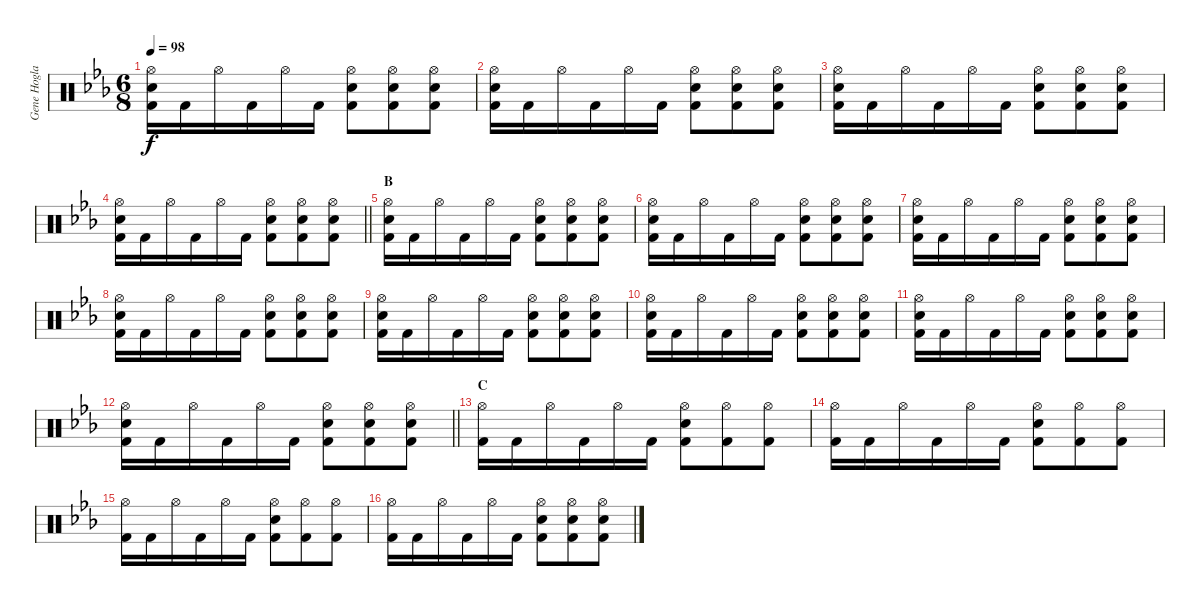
\track ("Gene Hogland" "Gene Hogla") {instrument percussion}
\staff {score}
\articulation defaults
\ts (6 8)
\tempo 98
\clef neutral
\ks eb
("Hi-Hat (open)" "Electric Snare (hit)" "Kick (hit) 2").16{dy f} "Kick (hit) 2".16 "Hi-Hat (open)".16 "Kick (hit) 2".16 "Hi-Hat (open)".16 "Kick (hit) 2".16 ("Hi-Hat (open)" "Electric Snare (hit)" "Kick (hit) 2").8 ("Hi-Hat (open)" "Electric Snare (hit)" "Kick (hit) 2").8 ("Hi-Hat (open)" "Electric Snare (hit)" "Kick (hit) 2").8 |
("Hi-Hat (open)" "Electric Snare (hit)" "Kick (hit) 2").16 "Kick (hit) 2".16 "Hi-Hat (open)".16 "Kick (hit) 2".16 "Hi-Hat (open)".16 "Kick (hit) 2".16 ("Hi-Hat (open)" "Electric Snare (hit)" "Kick (hit) 2").8 ("Hi-Hat (open)" "Electric Snare (hit)" "Kick (hit) 2").8 ("Hi-Hat (open)" "Electric Snare (hit)" "Kick (hit) 2").8 |
("Hi-Hat (open)" "Electric Snare (hit)" "Kick (hit) 2").16 "Kick (hit) 2".16 "Hi-Hat (open)".16 "Kick (hit) 2".16 "Hi-Hat (open)".16 "Kick (hit) 2".16 ("Hi-Hat (open)" "Electric Snare (hit)" "Kick (hit) 2").8 ("Hi-Hat (open)" "Electric Snare (hit)" "Kick (hit) 2").8 ("Hi-Hat (open)" "Electric Snare (hit)" "Kick (hit) 2").8 |
\barLineRight lightlight
("Hi-Hat (open)" "Electric Snare (hit)" "Kick (hit) 2").16 "Kick (hit) 2".16 "Hi-Hat (open)".16 "Kick (hit) 2".16 "Hi-Hat (open)".16 "Kick (hit) 2".16 ("Hi-Hat (open)" "Electric Snare (hit)" "Kick (hit) 2").8 ("Hi-Hat (open)" "Electric Snare (hit)" "Kick (hit) 2").8 ("Hi-Hat (open)" "Electric Snare (hit)" "Kick (hit) 2").8 |
\section ("" "B")
("Hi-Hat (open)" "Electric Snare (hit)" "Kick (hit) 2").16 "Kick (hit) 2".16 "Hi-Hat (open)".16 "Kick (hit) 2".16 "Hi-Hat (open)".16 "Kick (hit) 2".16 ("Hi-Hat (open)" "Electric Snare (hit)" "Kick (hit) 2").8 ("Hi-Hat (open)" "Electric Snare (hit)" "Kick (hit) 2").8 ("Hi-Hat (open)" "Electric Snare (hit)" "Kick (hit) 2").8 |
("Hi-Hat (open)" "Electric Snare (hit)" "Kick (hit) 2").16 "Kick (hit) 2".16 "Hi-Hat (open)".16 "Kick (hit) 2".16 "Hi-Hat (open)".16 "Kick (hit) 2".16 ("Hi-Hat (open)" "Electric Snare (hit)" "Kick (hit) 2").8 ("Hi-Hat (open)" "Electric Snare (hit)" "Kick (hit) 2").8 ("Hi-Hat (open)" "Electric Snare (hit)" "Kick (hit) 2").8 |
("Hi-Hat (open)" "Electric Snare (hit)" "Kick (hit) 2").16 "Kick (hit) 2".16 "Hi-Hat (open)".16 "Kick (hit) 2".16 "Hi-Hat (open)".16 "Kick (hit) 2".16 ("Hi-Hat (open)" "Electric Snare (hit)" "Kick (hit) 2").8 ("Hi-Hat (open)" "Electric Snare (hit)" "Kick (hit) 2").8 ("Hi-Hat (open)" "Electric Snare (hit)" "Kick (hit) 2").8 |
("Hi-Hat (open)" "Electric Snare (hit)" "Kick (hit) 2").16 "Kick (hit) 2".16 "Hi-Hat (open)".16 "Kick (hit) 2".16 "Hi-Hat (open)".16 "Kick (hit) 2".16 ("Hi-Hat (open)" "Electric Snare (hit)" "Kick (hit) 2").8 ("Hi-Hat (open)" "Electric Snare (hit)" "Kick (hit) 2").8 ("Hi-Hat (open)" "Electric Snare (hit)" "Kick (hit) 2").8 |
("Hi-Hat (open)" "Electric Snare (hit)" "Kick (hit) 2").16 "Kick (hit) 2".16 "Hi-Hat (open)".16 "Kick (hit) 2".16 "Hi-Hat (open)".16 "Kick (hit) 2".16 ("Hi-Hat (open)" "Electric Snare (hit)" "Kick (hit) 2").8 ("Hi-Hat (open)" "Electric Snare (hit)" "Kick (hit) 2").8 ("Hi-Hat (open)" "Electric Snare (hit)" "Kick (hit) 2").8 |
("Hi-Hat (open)" "Electric Snare (hit)" "Kick (hit) 2").16 "Kick (hit) 2".16 "Hi-Hat (open)".16 "Kick (hit) 2".16 "Hi-Hat (open)".16 "Kick (hit) 2".16 ("Hi-Hat (open)" "Electric Snare (hit)" "Kick (hit) 2").8 ("Hi-Hat (open)" "Electric Snare (hit)" "Kick (hit) 2").8 ("Hi-Hat (open)" "Electric Snare (hit)" "Kick (hit) 2").8 |
("Hi-Hat (open)" "Electric Snare (hit)" "Kick (hit) 2").16 "Kick (hit) 2".16 "Hi-Hat (open)".16 "Kick (hit) 2".16 "Hi-Hat (open)".16 "Kick (hit) 2".16 ("Hi-Hat (open)" "Electric Snare (hit)" "Kick (hit) 2").8 ("Hi-Hat (open)" "Electric Snare (hit)" "Kick (hit) 2").8 ("Hi-Hat (open)" "Electric Snare (hit)" "Kick (hit) 2").8 |
\barLineRight lightlight
("Hi-Hat (open)" "Electric Snare (hit)" "Kick (hit) 2").16 "Kick (hit) 2".16 "Hi-Hat (open)".16 "Kick (hit) 2".16 "Hi-Hat (open)".16 "Kick (hit) 2".16 ("Hi-Hat (open)" "Electric Snare (hit)" "Kick (hit) 2").8 ("Hi-Hat (open)" "Electric Snare (hit)" "Kick (hit) 2").8 ("Hi-Hat (open)" "Electric Snare (hit)" "Kick (hit) 2").8 |
\section ("" "C")
("Hi-Hat (open)" "Kick (hit) 2").16 "Kick (hit) 2".16 "Hi-Hat (open)".16 "Kick (hit) 2".16 "Hi-Hat (open)".16 "Kick (hit) 2".16 ("Hi-Hat (open)" "Electric Snare (hit)" "Kick (hit) 2").8 ("Hi-Hat (open)" "Kick (hit) 2").8 ("Hi-Hat (open)" "Kick (hit) 2").8 |
("Hi-Hat (open)" "Kick (hit) 2").16 "Kick (hit) 2".16 "Hi-Hat (open)".16 "Kick (hit) 2".16 "Hi-Hat (open)".16 "Kick (hit) 2".16 ("Hi-Hat (open)" "Electric Snare (hit)" "Kick (hit) 2").8 ("Hi-Hat (open)" "Kick (hit) 2").8 ("Hi-Hat (open)" "Kick (hit) 2").8 |
("Hi-Hat (open)" "Kick (hit) 2").16 "Kick (hit) 2".16 "Hi-Hat (open)".16 "Kick (hit) 2".16 "Hi-Hat (open)".16 "Kick (hit) 2".16 ("Hi-Hat (open)" "Electric Snare (hit)" "Kick (hit) 2").8 ("Hi-Hat (open)" "Kick (hit) 2").8 ("Hi-Hat (open)" "Kick (hit) 2").8 |
("Hi-Hat (open)" "Kick (hit) 2").16 "Kick (hit) 2".16 "Hi-Hat (open)".16 "Kick (hit) 2".16 "Hi-Hat (open)".16 "Kick (hit) 2".16 ("Hi-Hat (open)" "Electric Snare (hit)" "Kick (hit) 2").8 ("Hi-Hat (open)" "Electric Snare (hit)" "Kick (hit) 2").8 ("Hi-Hat (open)" "Electric Snare (hit)" "Kick (hit) 2").8
